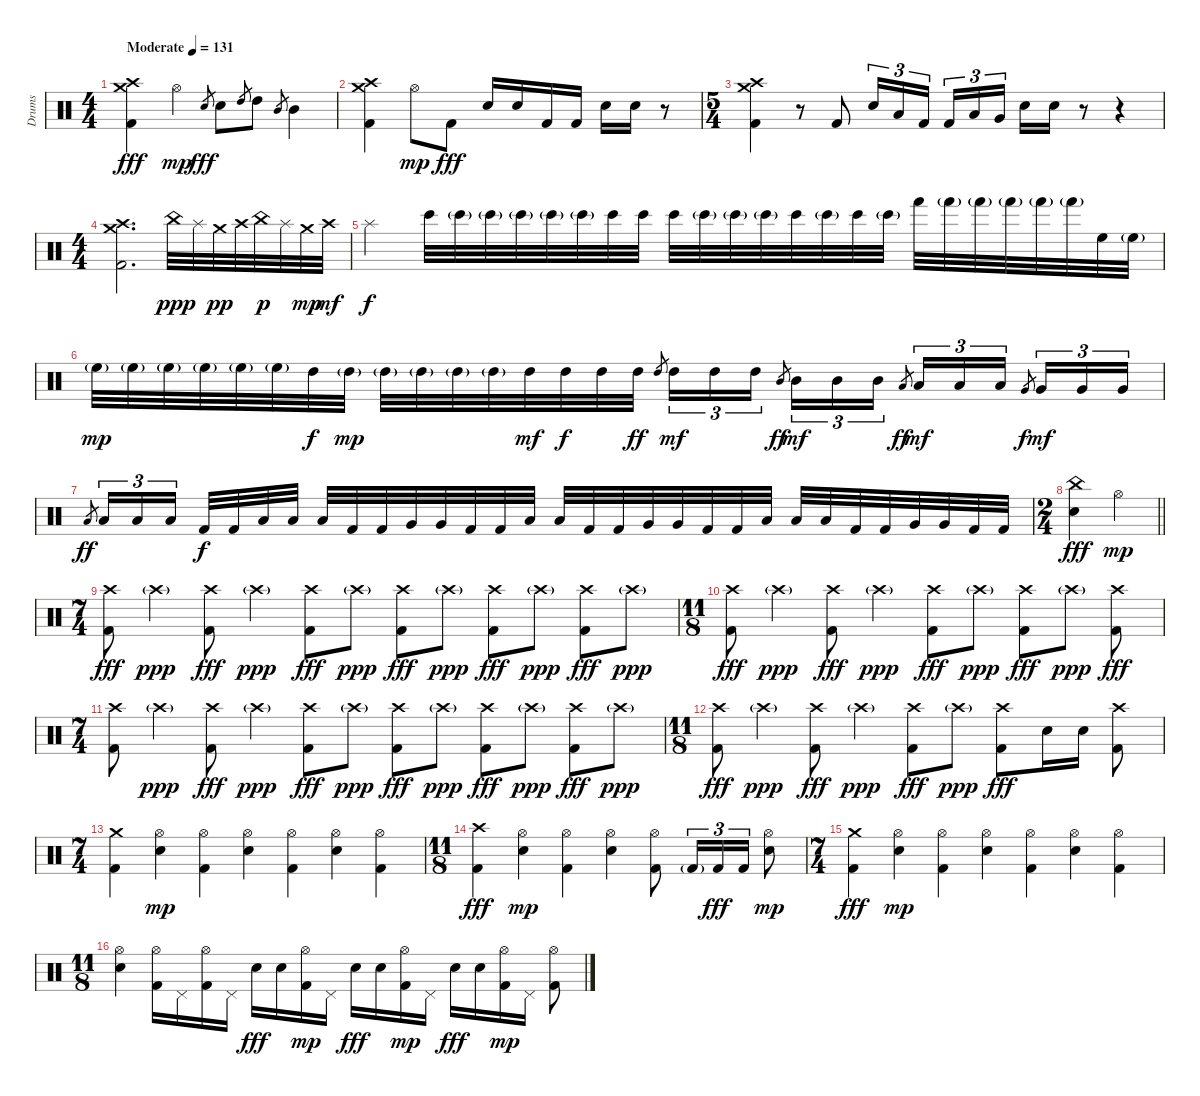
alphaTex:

\track ("Drums" "Drums") {instrument percussion}
\staff {score}
\articulation defaults
\ts (4 4)
\tempo (131 "Moderate")
\clef neutral
\ks c
("Kick (hit) 2" "Crash medium (hit)" "Crash high (hit)").4{dy fff} "Hi-Hat (open)".4{dy mp} "Electric Snare (hit)".8{gr dy fff} "Electric Snare (hit)".8 "High Tom (hit)".8{gr} "High Tom (hit)".8 "Mid Tom (hit)".8{gr} "Mid Tom (hit)".4 |
("Kick (hit) 2" "Crash medium (hit)" "Crash high (hit)").4 "Hi-Hat (open)".8{dy mp} "Kick (hit) 2".8{dy fff} "Electric Snare (hit)".16 "Electric Snare (hit)".16 "Kick (hit) 2".16 "Kick (hit) 2".16 "Electric Snare (hit)".16 "Electric Snare (hit)".16 r.8 |
\ts (5 4)
("Kick (hit) 2" "Crash medium (hit)" "Crash high (hit)").4 r.8 "Kick (hit) 2".8 "Electric Snare (hit)".16{tu (3 2)} "Low Tom (hit)".16{tu (3 2)} "Kick (hit) 2".16{tu (3 2) beam splitsecondary} "Kick (hit) 2".16{tu (3 2)} "Low Tom (hit)".16{tu (3 2)} "Very Low Tom (hit)".16{tu (3 2)} "Electric Snare (hit)".16 "Electric Snare (hit)".16 r.8 r.4 |
\ts (4 4)
("Kick (hit) 2" "Crash medium (hit)" "Crash high (hit)").2{d} "China (hit)".32{dy ppp} "Splash (hit)".32 "Crash medium (hit)".32{dy pp} "Crash high (hit)".32 "China (hit)".32{dy p} "Splash (hit)".32 "Crash medium (hit)".32{dy mp} "Crash high (hit)".32{dy mf} |
"Splash (hit)".4{dy f} "Bongo High (hit)".32 "Bongo High (hit)"{g}.32 "Bongo High (hit)"{g}.32 "Bongo High (hit)"{g}.32 "Bongo High (hit)"{g}.32 "Bongo High (hit)"{g}.32 "Bongo High (hit)".32 "Bongo High (hit)".32 "Bongo High (hit)".32 "Bongo High (hit)"{g}.32 "Bongo High (hit)"{g}.32 "Bongo High (hit)"{g}.32 "Bongo High (hit)".32 "Bongo High (hit)"{g}.32 "Bongo High (hit)".32 "Bongo High (hit)"{g}.32 "Hand (hit)".32 "Hand (hit)"{g}.32 "Hand (hit)"{g}.32 "Hand (hit)"{g}.32 "Hand (hit)"{g}.32 "Hand (hit)"{g}.32 "High Floor Tom (hit)".32 "High Floor Tom (hit)"{g}.32 |
"High Floor Tom (hit)"{g}.32{dy mp} "High Floor Tom (hit)"{g}.32 "High Floor Tom (hit)"{g}.32 "High Floor Tom (hit)"{g}.32 "High Floor Tom (hit)"{g}.32 "High Floor Tom (hit)"{g}.32 "High Tom (hit)".32{dy f} "High Tom (hit)"{g}.32{dy mp} "High Tom (hit)"{g}.32 "High Tom (hit)"{g}.32 "High Tom (hit)"{g}.32 "High Tom (hit)"{g}.32 "High Tom (hit)".32{dy mf} "High Tom (hit)".32{dy f} "High Tom (hit)".32 "High Tom (hit)".32{dy ff} "High Tom (hit)".8{gr} "High Tom (hit)".16{tu (3 2) dy mf} "High Tom (hit)".16{tu (3 2)} "High Tom (hit)".16{tu (3 2)} "Mid Tom (hit)".8{gr dy ff beam splitsecondary} "Mid Tom (hit)".16{tu (3 2) dy mf} "Mid Tom (hit)".16{tu (3 2)} "Mid Tom (hit)".16{tu (3 2)} "Low Tom (hit)".8{gr dy ff} "Low Tom (hit)".16{tu (3 2) dy mf} "Low Tom (hit)".16{tu (3 2)} "Low Tom (hit)".16{tu (3 2)} "Very Low Tom (hit)".8{gr dy f beam splitsecondary} "Very Low Tom (hit)".16{tu (3 2) dy mf} "Very Low Tom (hit)".16{tu (3 2)} "Very Low Tom (hit)".16{tu (3 2)} |
"Low Floor Tom (hit)".8{gr dy ff} "Low Floor Tom (hit)".16{tu (3 2)} "Low Floor Tom (hit)".16{tu (3 2)} "Low Floor Tom (hit)".16{tu (3 2) beam splitsecondary} "Kick (hit) 2".32{dy f} "Kick (hit) 2".32 "Low Floor Tom (hit)".32 "Low Floor Tom (hit)".32 "Low Floor Tom (hit)".32 "Kick (hit) 2".32 "Kick (hit) 2".32 "Very Low Tom (hit)".32 "Very Low Tom (hit)".32 "Kick (hit) 2".32 "Kick (hit) 2".32 "Low Floor Tom (hit)".32 "Low Floor Tom (hit)".32 "Kick (hit) 2".32 "Kick (hit) 2".32 "Very Low Tom (hit)".32 "Very Low Tom (hit)".32 "Kick (hit) 2".32 "Kick (hit) 2".32 "Low Floor Tom (hit)".32 "Low Floor Tom (hit)".32 "Low Floor Tom (hit)".32 "Kick (hit) 2".32 "Kick (hit) 2".32 "Very Low Tom (hit)".32 "Very Low Tom (hit)".32 "Kick (hit) 2".32 "Kick (hit) 2".32 |
\ts (2 4)
\barLineRight lightlight
("Electric Snare (hit)" "China (hit)").4{dy fff} "Hi-Hat (open)".4{dy mp} |
\ts (7 4)
("Kick (hit) 2" "Crash high (hit)").8{dy fff} "Crash high (hit)"{g}.4{dy ppp} ("Kick (hit) 2" "Crash high (hit)").8{dy fff} "Crash high (hit)"{g}.4{dy ppp} ("Kick (hit) 2" "Crash high (hit)").8{dy fff} "Crash high (hit)"{g}.8{dy ppp} ("Kick (hit) 2" "Crash high (hit)").8{dy fff} "Crash high (hit)"{g}.8{dy ppp} ("Kick (hit) 2" "Crash high (hit)").8{dy fff} "Crash high (hit)"{g}.8{dy ppp} ("Kick (hit) 2" "Crash high (hit)").8{dy fff} "Crash high (hit)"{g}.8{dy ppp} |
\ts (11 8)
("Kick (hit) 2" "Crash high (hit)").8{dy fff} "Crash high (hit)"{g}.4{dy ppp} ("Kick (hit) 2" "Crash high (hit)").8{dy fff} "Crash high (hit)"{g}.4{dy ppp} ("Kick (hit) 2" "Crash high (hit)").8{dy fff} "Crash high (hit)"{g}.8{dy ppp} ("Kick (hit) 2" "Crash high (hit)").8{dy fff} "Crash high (hit)"{g}.8{dy ppp} ("Kick (hit) 2" "Crash high (hit)").8{dy fff} |
\ts (7 4)
("Kick (hit) 2" "Crash high (hit)").8 "Crash high (hit)"{g}.4{dy ppp} ("Kick (hit) 2" "Crash high (hit)").8{dy fff} "Crash high (hit)"{g}.4{dy ppp} ("Kick (hit) 2" "Crash high (hit)").8{dy fff} "Crash high (hit)"{g}.8{dy ppp} ("Kick (hit) 2" "Crash high (hit)").8{dy fff} "Crash high (hit)"{g}.8{dy ppp} ("Kick (hit) 2" "Crash high (hit)").8{dy fff} "Crash high (hit)"{g}.8{dy ppp} ("Kick (hit) 2" "Crash high (hit)").8{dy fff} "Crash high (hit)"{g}.8{dy ppp} |
\ts (11 8)
("Kick (hit) 2" "Crash high (hit)").8{dy fff} "Crash high (hit)"{g}.4{dy ppp} ("Kick (hit) 2" "Crash high (hit)").8{dy fff} "Crash high (hit)"{g}.4{dy ppp} ("Kick (hit) 2" "Crash high (hit)").8{dy fff} "Crash high (hit)"{g}.8{dy ppp} ("Kick (hit) 2" "Crash high (hit)").8{dy fff} "Electric Snare (hit)".16 "Electric Snare (hit)".16 ("Kick (hit) 2" "Crash high (hit)").8 |
\ts (7 4)
("Kick (hit) 2" "Crash medium (hit)").4 ("Electric Snare (hit)" "Hi-Hat (open)").4{dy mp} ("Kick (hit) 2" "Hi-Hat (open)").4 ("Electric Snare (hit)" "Hi-Hat (open)").4 ("Kick (hit) 2" "Hi-Hat (open)").4 ("Electric Snare (hit)" "Hi-Hat (open)").4 ("Kick (hit) 2" "Hi-Hat (open)").4 |
\ts (11 8)
("Kick (hit) 2" "Crash high (hit)").4{dy fff} ("Electric Snare (hit)" "Hi-Hat (open)").4{dy mp} ("Kick (hit) 2" "Hi-Hat (open)").4 ("Electric Snare (hit)" "Hi-Hat (open)").4 ("Kick (hit) 2" "Hi-Hat (open)").8 "Kick (hit) 2"{g}.16{tu (3 2)} "Kick (hit) 2".16{tu (3 2) dy fff} "Kick (hit) 2".16{tu (3 2)} ("Electric Snare (hit)" "Hi-Hat (open)").8{dy mp} |
\ts (7 4)
("Kick (hit) 2" "Crash medium (hit)").4{dy fff} ("Electric Snare (hit)" "Hi-Hat (open)").4{dy mp} ("Kick (hit) 2" "Hi-Hat (open)").4 ("Electric Snare (hit)" "Hi-Hat (open)").4 ("Kick (hit) 2" "Hi-Hat (open)").4 ("Electric Snare (hit)" "Hi-Hat (open)").4 ("Kick (hit) 2" "Hi-Hat (open)").4 |
\ts (11 8)
("Electric Snare (hit)" "Hi-Hat (open)").4 ("Kick (hit) 2" "Hi-Hat (open)").16 "Pedal Hi-Hat (hit)".16 ("Kick (hit) 2" "Hi-Hat (open)").16 "Pedal Hi-Hat (hit)".16 "Electric Snare (hit)".16{dy fff} "Electric Snare (hit)".16 ("Kick (hit) 2" "Hi-Hat (open)").16{dy mp} "Pedal Hi-Hat (hit)".16 "Electric Snare (hit)".16{dy fff} "Electric Snare (hit)".16 ("Kick (hit) 2" "Hi-Hat (open)").16{dy mp} "Pedal Hi-Hat (hit)".16 "Electric Snare (hit)".16{dy fff} "Electric Snare (hit)".16 ("Kick (hit) 2" "Hi-Hat (open)").16{dy mp} "Pedal Hi-Hat (hit)".16 ("Kick (hit) 2" "Hi-Hat (open)").8
